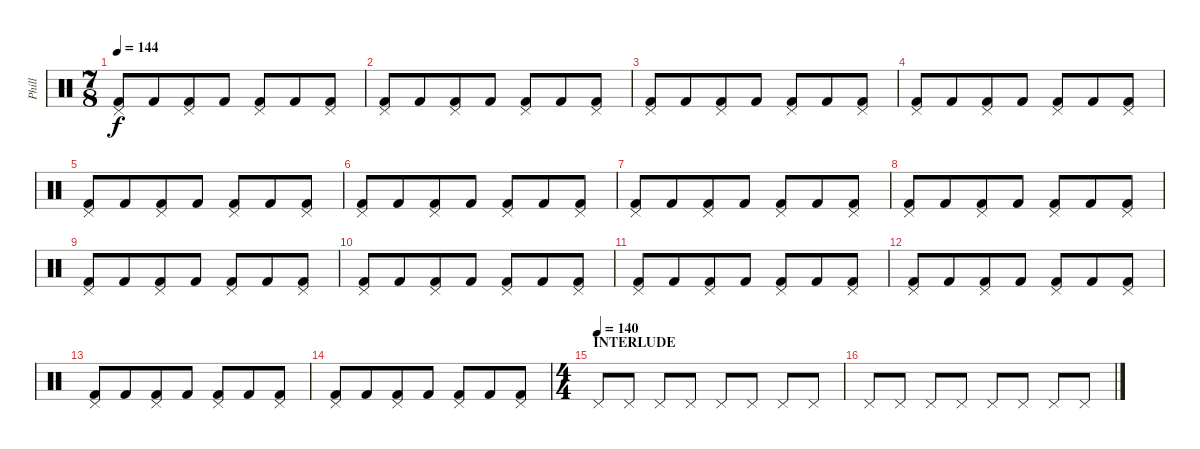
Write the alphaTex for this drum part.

\track ("Phill" "Phill") {instrument percussion}
\staff {score}
\articulation defaults
\ts (7 8)
\tempo 144
\clef neutral
\ks c
("Pedal Hi-Hat (hit)" "Kick (hit) 2").8{dy f} "Kick (hit) 2".8 ("Pedal Hi-Hat (hit)" "Kick (hit) 2").8 "Kick (hit) 2".8 ("Pedal Hi-Hat (hit)" "Kick (hit) 2").8 "Kick (hit) 2".8 ("Pedal Hi-Hat (hit)" "Kick (hit) 2").8 |
("Pedal Hi-Hat (hit)" "Kick (hit) 2").8 "Kick (hit) 2".8 ("Pedal Hi-Hat (hit)" "Kick (hit) 2").8 "Kick (hit) 2".8 ("Pedal Hi-Hat (hit)" "Kick (hit) 2").8 "Kick (hit) 2".8 ("Pedal Hi-Hat (hit)" "Kick (hit) 2").8 |
("Pedal Hi-Hat (hit)" "Kick (hit) 2").8 "Kick (hit) 2".8 ("Pedal Hi-Hat (hit)" "Kick (hit) 2").8 "Kick (hit) 2".8 ("Pedal Hi-Hat (hit)" "Kick (hit) 2").8 "Kick (hit) 2".8 ("Pedal Hi-Hat (hit)" "Kick (hit) 2").8 |
("Pedal Hi-Hat (hit)" "Kick (hit) 2").8 "Kick (hit) 2".8 ("Pedal Hi-Hat (hit)" "Kick (hit) 2").8 "Kick (hit) 2".8 ("Pedal Hi-Hat (hit)" "Kick (hit) 2").8 "Kick (hit) 2".8 ("Pedal Hi-Hat (hit)" "Kick (hit) 2").8 |
("Pedal Hi-Hat (hit)" "Kick (hit) 2").8 "Kick (hit) 2".8 ("Pedal Hi-Hat (hit)" "Kick (hit) 2").8 "Kick (hit) 2".8 ("Pedal Hi-Hat (hit)" "Kick (hit) 2").8 "Kick (hit) 2".8 ("Pedal Hi-Hat (hit)" "Kick (hit) 2").8 |
("Pedal Hi-Hat (hit)" "Kick (hit) 2").8 "Kick (hit) 2".8 ("Pedal Hi-Hat (hit)" "Kick (hit) 2").8 "Kick (hit) 2".8 ("Pedal Hi-Hat (hit)" "Kick (hit) 2").8 "Kick (hit) 2".8 ("Pedal Hi-Hat (hit)" "Kick (hit) 2").8 |
("Pedal Hi-Hat (hit)" "Kick (hit) 2").8 "Kick (hit) 2".8 ("Pedal Hi-Hat (hit)" "Kick (hit) 2").8 "Kick (hit) 2".8 ("Pedal Hi-Hat (hit)" "Kick (hit) 2").8 "Kick (hit) 2".8 ("Pedal Hi-Hat (hit)" "Kick (hit) 2").8 |
("Pedal Hi-Hat (hit)" "Kick (hit) 2").8 "Kick (hit) 2".8 ("Pedal Hi-Hat (hit)" "Kick (hit) 2").8 "Kick (hit) 2".8 ("Pedal Hi-Hat (hit)" "Kick (hit) 2").8 "Kick (hit) 2".8 ("Pedal Hi-Hat (hit)" "Kick (hit) 2").8 |
("Pedal Hi-Hat (hit)" "Kick (hit) 2").8 "Kick (hit) 2".8 ("Pedal Hi-Hat (hit)" "Kick (hit) 2").8 "Kick (hit) 2".8 ("Pedal Hi-Hat (hit)" "Kick (hit) 2").8 "Kick (hit) 2".8 ("Pedal Hi-Hat (hit)" "Kick (hit) 2").8 |
("Pedal Hi-Hat (hit)" "Kick (hit) 2").8 "Kick (hit) 2".8 ("Pedal Hi-Hat (hit)" "Kick (hit) 2").8 "Kick (hit) 2".8 ("Pedal Hi-Hat (hit)" "Kick (hit) 2").8 "Kick (hit) 2".8 ("Pedal Hi-Hat (hit)" "Kick (hit) 2").8 |
("Pedal Hi-Hat (hit)" "Kick (hit) 2").8 "Kick (hit) 2".8 ("Pedal Hi-Hat (hit)" "Kick (hit) 2").8 "Kick (hit) 2".8 ("Pedal Hi-Hat (hit)" "Kick (hit) 2").8 "Kick (hit) 2".8 ("Pedal Hi-Hat (hit)" "Kick (hit) 2").8 |
("Pedal Hi-Hat (hit)" "Kick (hit) 2").8 "Kick (hit) 2".8 ("Pedal Hi-Hat (hit)" "Kick (hit) 2").8 "Kick (hit) 2".8 ("Pedal Hi-Hat (hit)" "Kick (hit) 2").8 "Kick (hit) 2".8 ("Pedal Hi-Hat (hit)" "Kick (hit) 2").8 |
("Pedal Hi-Hat (hit)" "Kick (hit) 2").8 "Kick (hit) 2".8 ("Pedal Hi-Hat (hit)" "Kick (hit) 2").8 "Kick (hit) 2".8 ("Pedal Hi-Hat (hit)" "Kick (hit) 2").8 "Kick (hit) 2".8 ("Pedal Hi-Hat (hit)" "Kick (hit) 2").8 |
("Pedal Hi-Hat (hit)" "Kick (hit) 2").8 "Kick (hit) 2".8 ("Pedal Hi-Hat (hit)" "Kick (hit) 2").8 "Kick (hit) 2".8 ("Pedal Hi-Hat (hit)" "Kick (hit) 2").8 "Kick (hit) 2".8 ("Pedal Hi-Hat (hit)" "Kick (hit) 2").8 |
\ts (4 4)
\section ("" "INTERLUDE")
\tempo (140)
"Pedal Hi-Hat (hit)".8 "Pedal Hi-Hat (hit)".8 "Pedal Hi-Hat (hit)".8 "Pedal Hi-Hat (hit)".8 "Pedal Hi-Hat (hit)".8 "Pedal Hi-Hat (hit)".8 "Pedal Hi-Hat (hit)".8 "Pedal Hi-Hat (hit)".8 |
"Pedal Hi-Hat (hit)".8 "Pedal Hi-Hat (hit)".8 "Pedal Hi-Hat (hit)".8 "Pedal Hi-Hat (hit)".8 "Pedal Hi-Hat (hit)".8 "Pedal Hi-Hat (hit)".8 "Pedal Hi-Hat (hit)".8 "Pedal Hi-Hat (hit)".8
